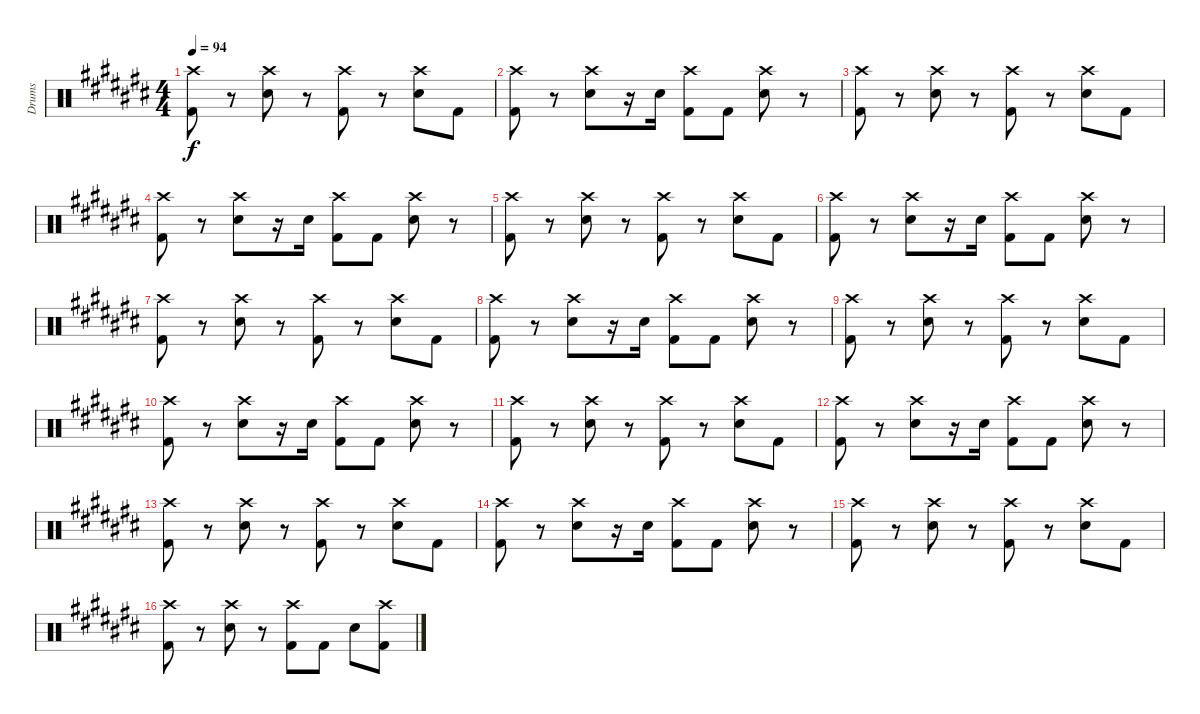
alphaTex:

\track ("Drums" "Drums") {instrument percussion}
\staff {score}
\articulation defaults
\ts (4 4)
\tempo 94
\clef neutral
\ks c#
("Crash high (hit)" "Kick (hit) 2").8{dy f} r.8 ("Crash high (hit)" "Snare (hit) 2").8 r.8 ("Crash high (hit)" "Kick (hit) 2").8 r.8 ("Crash high (hit)" "Snare (hit) 2").8 "Kick (hit) 2".8 |
("Crash high (hit)" "Kick (hit) 2").8 r.8 ("Crash high (hit)" "Snare (hit) 2").8 r.16 "Snare (hit) 2".16 ("Crash high (hit)" "Kick (hit) 2").8 "Kick (hit) 2".8 ("Crash high (hit)" "Snare (hit) 2").8 r.8 |
("Crash high (hit)" "Kick (hit) 2").8 r.8 ("Crash high (hit)" "Snare (hit) 2").8 r.8 ("Crash high (hit)" "Kick (hit) 2").8 r.8 ("Crash high (hit)" "Snare (hit) 2").8 "Kick (hit) 2".8 |
("Crash high (hit)" "Kick (hit) 2").8 r.8 ("Crash high (hit)" "Snare (hit) 2").8 r.16 "Snare (hit) 2".16 ("Crash high (hit)" "Kick (hit) 2").8 "Kick (hit) 2".8 ("Crash high (hit)" "Snare (hit) 2").8 r.8 |
("Crash high (hit)" "Kick (hit) 2").8 r.8 ("Crash high (hit)" "Snare (hit) 2").8 r.8 ("Crash high (hit)" "Kick (hit) 2").8 r.8 ("Crash high (hit)" "Snare (hit) 2").8 "Kick (hit) 2".8 |
("Crash high (hit)" "Kick (hit) 2").8 r.8 ("Crash high (hit)" "Snare (hit) 2").8 r.16 "Snare (hit) 2".16 ("Crash high (hit)" "Kick (hit) 2").8 "Kick (hit) 2".8 ("Crash high (hit)" "Snare (hit) 2").8 r.8 |
("Crash high (hit)" "Kick (hit) 2").8 r.8 ("Crash high (hit)" "Snare (hit) 2").8 r.8 ("Crash high (hit)" "Kick (hit) 2").8 r.8 ("Crash high (hit)" "Snare (hit) 2").8 "Kick (hit) 2".8 |
("Crash high (hit)" "Kick (hit) 2").8 r.8 ("Crash high (hit)" "Snare (hit) 2").8 r.16 "Snare (hit) 2".16 ("Crash high (hit)" "Kick (hit) 2").8 "Kick (hit) 2".8 ("Crash high (hit)" "Snare (hit) 2").8 r.8 |
("Crash high (hit)" "Kick (hit) 2").8 r.8 ("Crash high (hit)" "Snare (hit) 2").8 r.8 ("Crash high (hit)" "Kick (hit) 2").8 r.8 ("Crash high (hit)" "Snare (hit) 2").8 "Kick (hit) 2".8 |
("Crash high (hit)" "Kick (hit) 2").8 r.8 ("Crash high (hit)" "Snare (hit) 2").8 r.16 "Snare (hit) 2".16 ("Crash high (hit)" "Kick (hit) 2").8 "Kick (hit) 2".8 ("Crash high (hit)" "Snare (hit) 2").8 r.8 |
("Crash high (hit)" "Kick (hit) 2").8 r.8 ("Crash high (hit)" "Snare (hit) 2").8 r.8 ("Crash high (hit)" "Kick (hit) 2").8 r.8 ("Crash high (hit)" "Snare (hit) 2").8 "Kick (hit) 2".8 |
("Crash high (hit)" "Kick (hit) 2").8 r.8 ("Crash high (hit)" "Snare (hit) 2").8 r.16 "Snare (hit) 2".16 ("Crash high (hit)" "Kick (hit) 2").8 "Kick (hit) 2".8 ("Crash high (hit)" "Snare (hit) 2").8 r.8 |
("Crash high (hit)" "Kick (hit) 2").8 r.8 ("Crash high (hit)" "Snare (hit) 2").8 r.8 ("Crash high (hit)" "Kick (hit) 2").8 r.8 ("Crash high (hit)" "Snare (hit) 2").8 "Kick (hit) 2".8 |
("Crash high (hit)" "Kick (hit) 2").8 r.8 ("Crash high (hit)" "Snare (hit) 2").8 r.16 "Snare (hit) 2".16 ("Crash high (hit)" "Kick (hit) 2").8 "Kick (hit) 2".8 ("Crash high (hit)" "Snare (hit) 2").8 r.8 |
("Crash high (hit)" "Kick (hit) 2").8 r.8 ("Crash high (hit)" "Snare (hit) 2").8 r.8 ("Crash high (hit)" "Kick (hit) 2").8 r.8 ("Crash high (hit)" "Snare (hit) 2").8 "Kick (hit) 2".8 |
("Crash high (hit)" "Kick (hit) 2").8 r.8 ("Crash high (hit)" "Snare (hit) 2").8 r.8 ("Crash high (hit)" "Kick (hit) 2").8 "Kick (hit) 2".8 "Snare (hit) 2".8 ("Crash high (hit)" "Kick (hit) 2").8
